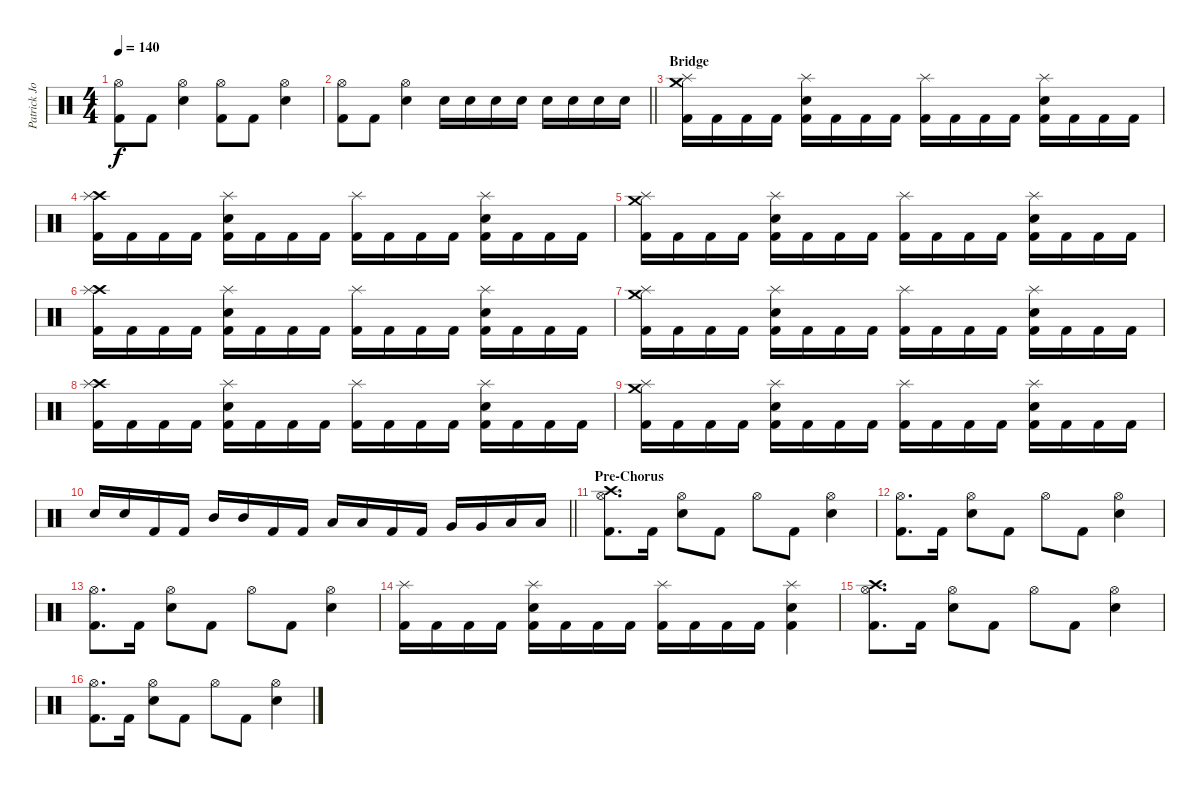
\track ("Patrick Johansson" "Patrick Jo") {instrument percussion}
\staff {score}
\articulation defaults
\ts (4 4)
\tempo 140
\clef neutral
\ks c
("Hi-Hat (open)" "Kick (hit) 2").8{dy f} "Kick (hit) 2".8 ("Hi-Hat (open)" "Snare (hit) 2").4 ("Hi-Hat (open)" "Kick (hit) 2").8 "Kick (hit) 2".8 ("Hi-Hat (open)" "Snare (hit) 2").4 |
\barLineRight lightlight
("Hi-Hat (open)" "Kick (hit) 2").8 "Kick (hit) 2".8 ("Hi-Hat (open)" "Snare (hit) 2").4 "Snare (hit) 2".16 "Snare (hit) 2".16 "Snare (hit) 2".16 "Snare (hit) 2".16 "Snare (hit) 2".16 "Snare (hit) 2".16 "Snare (hit) 2".16 "Snare (hit) 2".16 |
\section ("" "Bridge")
("Crash medium (hit)" "Splash (hit)" "Kick (hit) 2").16 "Kick (hit) 2".16 "Kick (hit) 2".16 "Kick (hit) 2".16 ("Splash (hit)" "Snare (hit) 2" "Kick (hit) 2").16 "Kick (hit) 2".16 "Kick (hit) 2".16 "Kick (hit) 2".16 ("Splash (hit)" "Kick (hit) 2").16 "Kick (hit) 2".16 "Kick (hit) 2".16 "Kick (hit) 2".16 ("Splash (hit)" "Snare (hit) 2" "Kick (hit) 2").16 "Kick (hit) 2".16 "Kick (hit) 2".16 "Kick (hit) 2".16 |
("Crash high (hit)" "Splash (hit)" "Kick (hit) 2").16 "Kick (hit) 2".16 "Kick (hit) 2".16 "Kick (hit) 2".16 ("Splash (hit)" "Snare (hit) 2" "Kick (hit) 2").16 "Kick (hit) 2".16 "Kick (hit) 2".16 "Kick (hit) 2".16 ("Splash (hit)" "Kick (hit) 2").16 "Kick (hit) 2".16 "Kick (hit) 2".16 "Kick (hit) 2".16 ("Splash (hit)" "Snare (hit) 2" "Kick (hit) 2").16 "Kick (hit) 2".16 "Kick (hit) 2".16 "Kick (hit) 2".16 |
("Crash medium (hit)" "Splash (hit)" "Kick (hit) 2").16 "Kick (hit) 2".16 "Kick (hit) 2".16 "Kick (hit) 2".16 ("Splash (hit)" "Snare (hit) 2" "Kick (hit) 2").16 "Kick (hit) 2".16 "Kick (hit) 2".16 "Kick (hit) 2".16 ("Splash (hit)" "Kick (hit) 2").16 "Kick (hit) 2".16 "Kick (hit) 2".16 "Kick (hit) 2".16 ("Splash (hit)" "Snare (hit) 2" "Kick (hit) 2").16 "Kick (hit) 2".16 "Kick (hit) 2".16 "Kick (hit) 2".16 |
("Crash high (hit)" "Splash (hit)" "Kick (hit) 2").16 "Kick (hit) 2".16 "Kick (hit) 2".16 "Kick (hit) 2".16 ("Splash (hit)" "Snare (hit) 2" "Kick (hit) 2").16 "Kick (hit) 2".16 "Kick (hit) 2".16 "Kick (hit) 2".16 ("Splash (hit)" "Kick (hit) 2").16 "Kick (hit) 2".16 "Kick (hit) 2".16 "Kick (hit) 2".16 ("Splash (hit)" "Snare (hit) 2" "Kick (hit) 2").16 "Kick (hit) 2".16 "Kick (hit) 2".16 "Kick (hit) 2".16 |
("Crash medium (hit)" "Splash (hit)" "Kick (hit) 2").16 "Kick (hit) 2".16 "Kick (hit) 2".16 "Kick (hit) 2".16 ("Splash (hit)" "Snare (hit) 2" "Kick (hit) 2").16 "Kick (hit) 2".16 "Kick (hit) 2".16 "Kick (hit) 2".16 ("Splash (hit)" "Kick (hit) 2").16 "Kick (hit) 2".16 "Kick (hit) 2".16 "Kick (hit) 2".16 ("Splash (hit)" "Snare (hit) 2" "Kick (hit) 2").16 "Kick (hit) 2".16 "Kick (hit) 2".16 "Kick (hit) 2".16 |
("Crash high (hit)" "Splash (hit)" "Kick (hit) 2").16 "Kick (hit) 2".16 "Kick (hit) 2".16 "Kick (hit) 2".16 ("Splash (hit)" "Snare (hit) 2" "Kick (hit) 2").16 "Kick (hit) 2".16 "Kick (hit) 2".16 "Kick (hit) 2".16 ("Splash (hit)" "Kick (hit) 2").16 "Kick (hit) 2".16 "Kick (hit) 2".16 "Kick (hit) 2".16 ("Splash (hit)" "Snare (hit) 2" "Kick (hit) 2").16 "Kick (hit) 2".16 "Kick (hit) 2".16 "Kick (hit) 2".16 |
("Crash medium (hit)" "Splash (hit)" "Kick (hit) 2").16 "Kick (hit) 2".16 "Kick (hit) 2".16 "Kick (hit) 2".16 ("Splash (hit)" "Snare (hit) 2" "Kick (hit) 2").16 "Kick (hit) 2".16 "Kick (hit) 2".16 "Kick (hit) 2".16 ("Splash (hit)" "Kick (hit) 2").16 "Kick (hit) 2".16 "Kick (hit) 2".16 "Kick (hit) 2".16 ("Splash (hit)" "Snare (hit) 2" "Kick (hit) 2").16 "Kick (hit) 2".16 "Kick (hit) 2".16 "Kick (hit) 2".16 |
\barLineRight lightlight "Snare (hit) 2".16 "Snare (hit) 2".16 "Kick (hit) 2".16 "Kick (hit) 2".16 "Mid Tom (hit)".16 "Mid Tom (hit)".16 "Kick (hit) 2".16 "Kick (hit) 2".16 "Low Tom (hit)".16 "Low Tom (hit)".16 "Kick (hit) 2".16 "Kick (hit) 2".16 "Very Low Tom (hit)".16 "Very Low Tom (hit)".16 "Low Floor Tom (hit)".16 "Low Floor Tom (hit)".16
|
\section ("" "Pre-Chorus")
("Crash high (hit)" "Hi-Hat (open)" "Kick (hit) 2").8{d} "Kick (hit) 2".16 ("Hi-Hat (open)" "Snare (hit) 2").8 "Kick (hit) 2".8 "Hi-Hat (open)".8 "Kick (hit) 2".8 ("Hi-Hat (open)" "Snare (hit) 2").4 |
("Hi-Hat (open)" "Kick (hit) 2").8{d} "Kick (hit) 2".16 ("Hi-Hat (open)" "Snare (hit) 2").8 "Kick (hit) 2".8 "Hi-Hat (open)".8 "Kick (hit) 2".8 ("Hi-Hat (open)" "Snare (hit) 2").4 |
("Hi-Hat (open)" "Kick (hit) 2").8{d} "Kick (hit) 2".16 ("Hi-Hat (open)" "Snare (hit) 2").8 "Kick (hit) 2".8 "Hi-Hat (open)".8 "Kick (hit) 2".8 ("Hi-Hat (open)" "Snare (hit) 2").4 |
("Splash (hit)" "Kick (hit) 2").16 "Kick (hit) 2".16 "Kick (hit) 2".16 "Kick (hit) 2".16 ("Splash (hit)" "Snare (hit) 2" "Kick (hit) 2").16 "Kick (hit) 2".16 "Kick (hit) 2".16 "Kick (hit) 2".16 ("Splash (hit)" "Kick (hit) 2").16 "Kick (hit) 2".16 "Kick (hit) 2".16 "Kick (hit) 2".16 ("Splash (hit)" "Snare (hit) 2" "Kick (hit) 2").4 |
("Crash high (hit)" "Hi-Hat (open)" "Kick (hit) 2").8{d} "Kick (hit) 2".16 ("Hi-Hat (open)" "Snare (hit) 2").8 "Kick (hit) 2".8 "Hi-Hat (open)".8 "Kick (hit) 2".8 ("Hi-Hat (open)" "Snare (hit) 2").4 |
("Hi-Hat (open)" "Kick (hit) 2").8{d} "Kick (hit) 2".16 ("Hi-Hat (open)" "Snare (hit) 2").8 "Kick (hit) 2".8 "Hi-Hat (open)".8 "Kick (hit) 2".8 ("Hi-Hat (open)" "Snare (hit) 2").4
